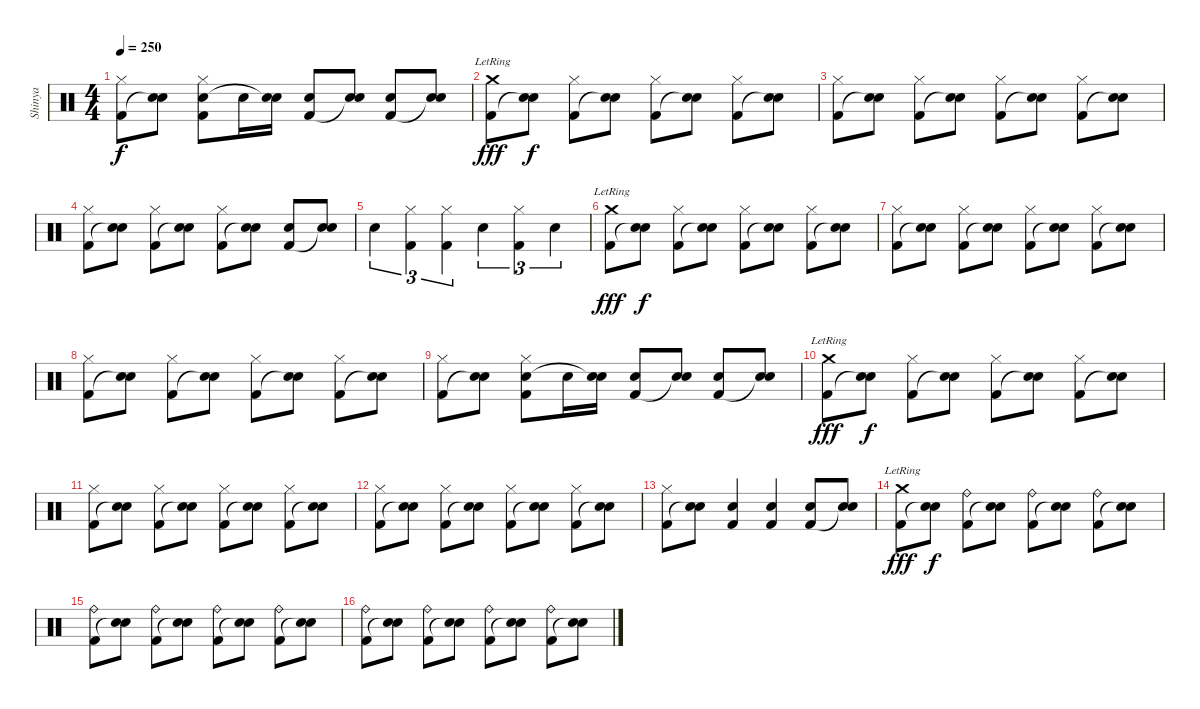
\track ("Shinya" "Shinya") {instrument percussion}
\staff {score}
\articulation defaults
\ts (4 4)
\tempo 250
\clef neutral
\ks c
("Hi-Hat (closed)" "Kick (hit) 2").8{dy f} ("Electric Snare (hit)" "Snare (hit)"{t}).8 ("Hi-Hat (closed)" "Electric Snare (hit)" "Kick (hit) 2").8 "Electric Snare (hit)".16 ("Electric Snare (hit)" "Snare (hit)"{t}).16 ("Electric Snare (hit)" "Kick (hit) 2").8 ("Electric Snare (hit)" "Snare (hit)"{t}).8 ("Electric Snare (hit)" "Kick (hit) 2").8 ("Electric Snare (hit)" "Snare (hit)"{t}).8 |
("Crash medium (hit)"{lr} "Kick (hit) 2").8{dy fff} ("Electric Snare (hit)" "Snare (hit)"{t}).8{dy f} ("Hi-Hat (closed)" "Kick (hit) 2").8 ("Electric Snare (hit)" "Snare (hit)"{t}).8 ("Hi-Hat (closed)" "Kick (hit) 2").8 ("Electric Snare (hit)" "Snare (hit)"{t}).8 ("Hi-Hat (closed)" "Kick (hit) 2").8 ("Electric Snare (hit)" "Snare (hit)"{t}).8 |
("Hi-Hat (closed)" "Kick (hit) 2").8 ("Electric Snare (hit)" "Snare (hit)"{t}).8 ("Hi-Hat (closed)" "Kick (hit) 2").8 ("Electric Snare (hit)" "Snare (hit)"{t}).8 ("Hi-Hat (closed)" "Kick (hit) 2").8 ("Electric Snare (hit)" "Snare (hit)"{t}).8 ("Hi-Hat (closed)" "Kick (hit) 2").8 ("Electric Snare (hit)" "Snare (hit)"{t}).8 |
("Hi-Hat (closed)" "Kick (hit) 2").8 ("Electric Snare (hit)" "Snare (hit)"{t}).8 ("Hi-Hat (closed)" "Kick (hit) 2").8 ("Electric Snare (hit)" "Snare (hit)"{t}).8 ("Hi-Hat (closed)" "Kick (hit) 2").8 ("Electric Snare (hit)" "Snare (hit)"{t}).8 ("Electric Snare (hit)" "Kick (hit) 2").8 ("Electric Snare (hit)" "Snare (hit)"{t}).8 |
"Electric Snare (hit)".4{tu (3 2)} ("Hi-Hat (closed)" "Kick (hit) 2").4{tu (3 2)} ("Hi-Hat (closed)" "Kick (hit) 2").4{tu (3 2)} "Electric Snare (hit)".4{tu (3 2)} ("Hi-Hat (closed)" "Kick (hit) 2").4{tu (3 2)} "Electric Snare (hit)".4{tu (3 2)} |
("Crash medium (hit)"{lr} "Kick (hit) 2").8{dy fff} ("Electric Snare (hit)" "Snare (hit)"{t}).8{dy f} ("Hi-Hat (closed)" "Kick (hit) 2").8 ("Electric Snare (hit)" "Snare (hit)"{t}).8 ("Hi-Hat (closed)" "Kick (hit) 2").8 ("Electric Snare (hit)" "Snare (hit)"{t}).8 ("Hi-Hat (closed)" "Kick (hit) 2").8 ("Electric Snare (hit)" "Snare (hit)"{t}).8 |
("Hi-Hat (closed)" "Kick (hit) 2").8 ("Electric Snare (hit)" "Snare (hit)"{t}).8 ("Hi-Hat (closed)" "Kick (hit) 2").8 ("Electric Snare (hit)" "Snare (hit)"{t}).8 ("Hi-Hat (closed)" "Kick (hit) 2").8 ("Electric Snare (hit)" "Snare (hit)"{t}).8 ("Hi-Hat (closed)" "Kick (hit) 2").8 ("Electric Snare (hit)" "Snare (hit)"{t}).8 |
("Hi-Hat (closed)" "Kick (hit) 2").8 ("Electric Snare (hit)" "Snare (hit)"{t}).8 ("Hi-Hat (closed)" "Kick (hit) 2").8 ("Electric Snare (hit)" "Snare (hit)"{t}).8 ("Hi-Hat (closed)" "Kick (hit) 2").8 ("Electric Snare (hit)" "Snare (hit)"{t}).8 ("Hi-Hat (closed)" "Kick (hit) 2").8 ("Electric Snare (hit)" "Snare (hit)"{t}).8 |
("Hi-Hat (closed)" "Kick (hit) 2").8 ("Electric Snare (hit)" "Snare (hit)"{t}).8 ("Hi-Hat (closed)" "Electric Snare (hit)" "Kick (hit) 2").8 "Electric Snare (hit)".16 ("Electric Snare (hit)" "Snare (hit)"{t}).16 ("Electric Snare (hit)" "Kick (hit) 2").8 ("Electric Snare (hit)" "Snare (hit)"{t}).8 ("Electric Snare (hit)" "Kick (hit) 2").8 ("Electric Snare (hit)" "Snare (hit)"{t}).8 |
("Crash medium (hit)"{lr} "Kick (hit) 2").8{dy fff} ("Electric Snare (hit)" "Snare (hit)"{t}).8{dy f} ("Hi-Hat (closed)" "Kick (hit) 2").8 ("Electric Snare (hit)" "Snare (hit)"{t}).8 ("Hi-Hat (closed)" "Kick (hit) 2").8 ("Electric Snare (hit)" "Snare (hit)"{t}).8 ("Hi-Hat (closed)" "Kick (hit) 2").8 ("Electric Snare (hit)" "Snare (hit)"{t}).8 |
("Hi-Hat (closed)" "Kick (hit) 2").8 ("Electric Snare (hit)" "Snare (hit)"{t}).8 ("Hi-Hat (closed)" "Kick (hit) 2").8 ("Electric Snare (hit)" "Snare (hit)"{t}).8 ("Hi-Hat (closed)" "Kick (hit) 2").8 ("Electric Snare (hit)" "Snare (hit)"{t}).8 ("Hi-Hat (closed)" "Kick (hit) 2").8 ("Electric Snare (hit)" "Snare (hit)"{t}).8 |
("Hi-Hat (closed)" "Kick (hit) 2").8 ("Electric Snare (hit)" "Snare (hit)"{t}).8 ("Hi-Hat (closed)" "Kick (hit) 2").8 ("Electric Snare (hit)" "Snare (hit)"{t}).8 ("Hi-Hat (closed)" "Kick (hit) 2").8 ("Electric Snare (hit)" "Snare (hit)"{t}).8 ("Hi-Hat (closed)" "Kick (hit) 2").8 ("Electric Snare (hit)" "Snare (hit)"{t}).8 |
("Hi-Hat (closed)" "Kick (hit) 2").8 ("Electric Snare (hit)" "Snare (hit)"{t}).8 ("Electric Snare (hit)" "Kick (hit) 2").4 ("Electric Snare (hit)" "Kick (hit) 2").4 ("Electric Snare (hit)" "Kick (hit) 2").8 ("Electric Snare (hit)" "Snare (hit)"{t}).8 |
("Crash medium (hit)"{lr} "Kick (hit) 2").8{dy fff} ("Electric Snare (hit)" "Snare (hit)"{t}).8{dy f} ("Ride (bell)" "Kick (hit) 2").8 ("Electric Snare (hit)" "Snare (hit)"{t}).8 ("Ride (bell)" "Kick (hit) 2").8 ("Electric Snare (hit)" "Snare (hit)"{t}).8 ("Ride (bell)" "Kick (hit) 2").8 ("Electric Snare (hit)" "Snare (hit)"{t}).8 |
("Ride (bell)" "Kick (hit) 2").8 ("Electric Snare (hit)" "Snare (hit)"{t}).8 ("Ride (bell)" "Kick (hit) 2").8 ("Electric Snare (hit)" "Snare (hit)"{t}).8 ("Ride (bell)" "Kick (hit) 2").8 ("Electric Snare (hit)" "Snare (hit)"{t}).8 ("Ride (bell)" "Kick (hit) 2").8 ("Electric Snare (hit)" "Snare (hit)"{t}).8 |
("Ride (bell)" "Kick (hit) 2").8 ("Electric Snare (hit)" "Snare (hit)"{t}).8 ("Ride (bell)" "Kick (hit) 2").8 ("Electric Snare (hit)" "Snare (hit)"{t}).8 ("Ride (bell)" "Kick (hit) 2").8 ("Electric Snare (hit)" "Snare (hit)"{t}).8 ("Ride (bell)" "Kick (hit) 2").8 ("Electric Snare (hit)" "Snare (hit)"{t}).8
